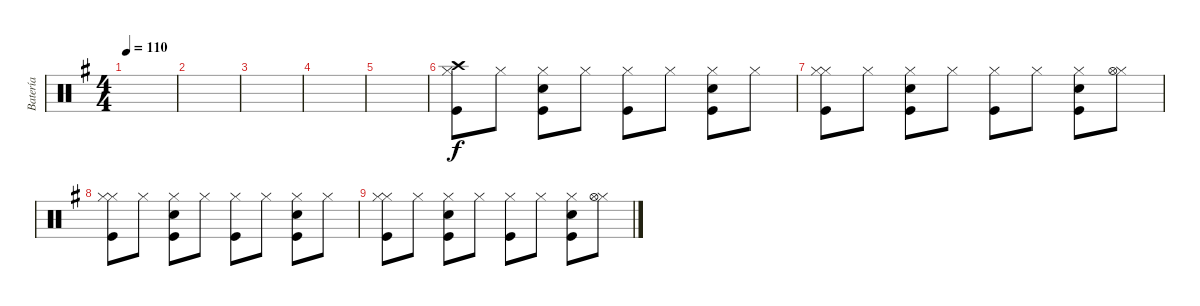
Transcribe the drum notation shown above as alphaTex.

\track ("Batería" "Batería") {instrument percussion}
\staff {score}
\articulation defaults
\ts (4 4)
\tempo 110
\clef neutral
\ks eminor
|
|
|
|
|
("Crash high (hit)" "Hi-Hat (closed)" "Kick (hit)").8 "Hi-Hat (closed)".8 ("Snare (hit) 2" "Hi-Hat (closed)" "Kick (hit)").8 "Hi-Hat (closed)".8 ("Hi-Hat (closed)" "Kick (hit)").8 "Hi-Hat (closed)".8 ("Hi-Hat (closed)" "Snare (hit) 2" "Kick (hit)").8 "Hi-Hat (closed)".8 |
("Hi-Hat (closed)" "Hi-Hat (closed)" "Kick (hit)").8 "Hi-Hat (closed)".8 ("Hi-Hat (closed)" "Snare (hit) 2" "Kick (hit)").8 "Hi-Hat (closed)".8 ("Hi-Hat (closed)" "Kick (hit)").8 "Hi-Hat (closed)".8 ("Hi-Hat (closed)" "Snare (hit) 2" "Kick (hit)").8 ("Hi-Hat (closed)" "Hi-Hat (open)").8 |
("Hi-Hat (closed)" "Hi-Hat (closed)" "Kick (hit)").8 "Hi-Hat (closed)".8 ("Hi-Hat (closed)" "Snare (hit) 2" "Kick (hit)").8 "Hi-Hat (closed)".8 ("Hi-Hat (closed)" "Kick (hit)").8 "Hi-Hat (closed)".8 ("Hi-Hat (closed)" "Snare (hit) 2" "Kick (hit)").8 "Hi-Hat (closed)".8 |
("Hi-Hat (closed)" "Hi-Hat (closed)" "Kick (hit)").8 "Hi-Hat (closed)".8 ("Hi-Hat (closed)" "Snare (hit) 2" "Kick (hit)").8 "Hi-Hat (closed)".8 ("Hi-Hat (closed)" "Kick (hit)").8 "Hi-Hat (closed)".8 ("Hi-Hat (closed)" "Snare (hit) 2" "Kick (hit)").8 ("Hi-Hat (closed)" "Hi-Hat (open)").8
